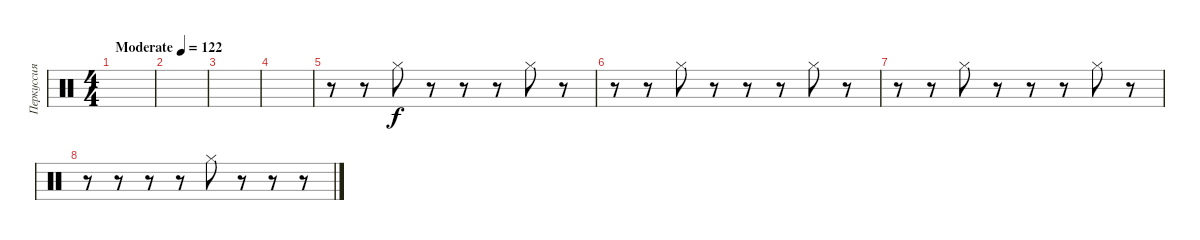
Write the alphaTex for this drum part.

\track ("Перкуссия" "Перкуссия") {instrument percussion}
\staff {score}
\articulation defaults
\ts (4 4)
\tempo (122 "Moderate")
\clef neutral
\ks c
|
|
|
|
r.8 r.8 "Hi-Hat (closed)".8 r.8 r.8 r.8 "Hi-Hat (closed)".8 r.8 |
r.8 r.8 "Hi-Hat (closed)".8 r.8 r.8 r.8 "Hi-Hat (closed)".8 r.8 |
r.8 r.8 "Hi-Hat (closed)".8 r.8 r.8 r.8 "Hi-Hat (closed)".8 r.8 |
r.8 r.8 r.8 r.8 "Hi-Hat (closed)".8 r.8 r.8 r.8
